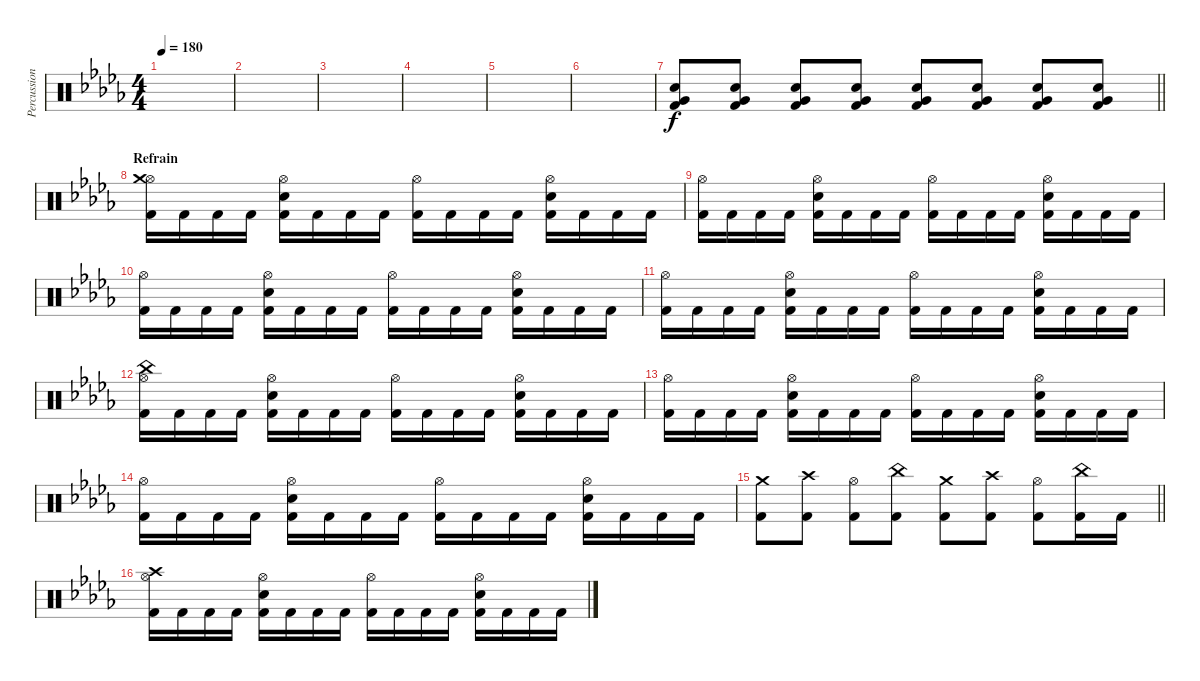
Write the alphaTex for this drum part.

\track ("Percussions" "Percussion") {instrument percussion}
\staff {score}
\articulation defaults
\ts (4 4)
\tempo 180
\clef neutral
\ks bbminor
|
|
|
|
|
|
\barLineRight lightlight
("Electric Snare (hit)" "Very Low Tom (hit)" "Kick (hit) 2").8{volume 13} ("Electric Snare (hit)" "Very Low Tom (hit)" "Kick (hit) 2").8 ("Electric Snare (hit)" "Very Low Tom (hit)" "Kick (hit) 2").8 ("Electric Snare (hit)" "Very Low Tom (hit)" "Kick (hit) 2").8 ("Electric Snare (hit)" "Very Low Tom (hit)" "Kick (hit) 2").8 ("Electric Snare (hit)" "Very Low Tom (hit)" "Kick (hit) 2").8 ("Electric Snare (hit)" "Very Low Tom (hit)" "Kick (hit) 2").8 ("Electric Snare (hit)" "Very Low Tom (hit)" "Kick (hit) 2").8 |
\section ("" "Refrain")
("Hi-Hat (open)" "Crash medium (hit)" "Kick (hit) 2").16 "Kick (hit) 2".16 "Kick (hit) 2".16 "Kick (hit) 2".16 ("Hi-Hat (open)" "Electric Snare (hit)" "Kick (hit) 2").16 "Kick (hit) 2".16 "Kick (hit) 2".16 "Kick (hit) 2".16 ("Hi-Hat (open)" "Kick (hit) 2").16 "Kick (hit) 2".16 "Kick (hit) 2".16 "Kick (hit) 2".16 ("Hi-Hat (open)" "Electric Snare (hit)" "Kick (hit) 2").16 "Kick (hit) 2".16 "Kick (hit) 2".16 "Kick (hit) 2".16 |
("Hi-Hat (open)" "Kick (hit) 2").16 "Kick (hit) 2".16 "Kick (hit) 2".16 "Kick (hit) 2".16 ("Hi-Hat (open)" "Electric Snare (hit)" "Kick (hit) 2").16 "Kick (hit) 2".16 "Kick (hit) 2".16 "Kick (hit) 2".16 ("Hi-Hat (open)" "Kick (hit) 2").16 "Kick (hit) 2".16 "Kick (hit) 2".16 "Kick (hit) 2".16 ("Hi-Hat (open)" "Electric Snare (hit)" "Kick (hit) 2").16 "Kick (hit) 2".16 "Kick (hit) 2".16 "Kick (hit) 2".16 |
("Hi-Hat (open)" "Kick (hit) 2").16 "Kick (hit) 2".16 "Kick (hit) 2".16 "Kick (hit) 2".16 ("Hi-Hat (open)" "Electric Snare (hit)" "Kick (hit) 2").16 "Kick (hit) 2".16 "Kick (hit) 2".16 "Kick (hit) 2".16 ("Hi-Hat (open)" "Kick (hit) 2").16 "Kick (hit) 2".16 "Kick (hit) 2".16 "Kick (hit) 2".16 ("Hi-Hat (open)" "Electric Snare (hit)" "Kick (hit) 2").16 "Kick (hit) 2".16 "Kick (hit) 2".16 "Kick (hit) 2".16 |
("Hi-Hat (open)" "Kick (hit) 2").16 "Kick (hit) 2".16 "Kick (hit) 2".16 "Kick (hit) 2".16 ("Hi-Hat (open)" "Electric Snare (hit)" "Kick (hit) 2").16 "Kick (hit) 2".16 "Kick (hit) 2".16 "Kick (hit) 2".16 ("Hi-Hat (open)" "Kick (hit) 2").16 "Kick (hit) 2".16 "Kick (hit) 2".16 "Kick (hit) 2".16 ("Hi-Hat (open)" "Electric Snare (hit)" "Kick (hit) 2").16 "Kick (hit) 2".16 "Kick (hit) 2".16 "Kick (hit) 2".16 |
("Hi-Hat (open)" "China (hit)" "Kick (hit) 2").16 "Kick (hit) 2".16 "Kick (hit) 2".16 "Kick (hit) 2".16 ("Hi-Hat (open)" "Electric Snare (hit)" "Kick (hit) 2").16 "Kick (hit) 2".16 "Kick (hit) 2".16 "Kick (hit) 2".16 ("Hi-Hat (open)" "Kick (hit) 2").16 "Kick (hit) 2".16 "Kick (hit) 2".16 "Kick (hit) 2".16 ("Hi-Hat (open)" "Electric Snare (hit)" "Kick (hit) 2").16 "Kick (hit) 2".16 "Kick (hit) 2".16 "Kick (hit) 2".16 |
("Hi-Hat (open)" "Kick (hit) 2").16 "Kick (hit) 2".16 "Kick (hit) 2".16 "Kick (hit) 2".16 ("Hi-Hat (open)" "Electric Snare (hit)" "Kick (hit) 2").16 "Kick (hit) 2".16 "Kick (hit) 2".16 "Kick (hit) 2".16 ("Hi-Hat (open)" "Kick (hit) 2").16 "Kick (hit) 2".16 "Kick (hit) 2".16 "Kick (hit) 2".16 ("Hi-Hat (open)" "Electric Snare (hit)" "Kick (hit) 2").16 "Kick (hit) 2".16 "Kick (hit) 2".16 "Kick (hit) 2".16 |
("Hi-Hat (open)" "Kick (hit) 2").16 "Kick (hit) 2".16 "Kick (hit) 2".16 "Kick (hit) 2".16 ("Hi-Hat (open)" "Electric Snare (hit)" "Kick (hit) 2").16 "Kick (hit) 2".16 "Kick (hit) 2".16 "Kick (hit) 2".16 ("Hi-Hat (open)" "Kick (hit) 2").16 "Kick (hit) 2".16 "Kick (hit) 2".16 "Kick (hit) 2".16 ("Hi-Hat (open)" "Electric Snare (hit)" "Kick (hit) 2").16 "Kick (hit) 2".16 "Kick (hit) 2".16 "Kick (hit) 2".16 |
\barLineRight lightlight
("Crash medium (hit)" "Kick (hit) 2").8 ("Crash high (hit)" "Kick (hit) 2").8 ("Hi-Hat (open)" "Kick (hit) 2").8 ("China (hit)" "Kick (hit) 2").8 ("Crash medium (hit)" "Kick (hit) 2").8 ("Crash high (hit)" "Kick (hit) 2").8 ("Hi-Hat (open)" "Kick (hit) 2").8 ("China (hit)" "Kick (hit) 2").16 "Kick (hit) 2".16 |
("Hi-Hat (open)" "Crash high (hit)" "Kick (hit) 2").16 "Kick (hit) 2".16 "Kick (hit) 2".16 "Kick (hit) 2".16 ("Hi-Hat (open)" "Electric Snare (hit)" "Kick (hit) 2").16 "Kick (hit) 2".16 "Kick (hit) 2".16 "Kick (hit) 2".16 ("Hi-Hat (open)" "Kick (hit) 2").16 "Kick (hit) 2".16 "Kick (hit) 2".16 "Kick (hit) 2".16 ("Hi-Hat (open)" "Electric Snare (hit)" "Kick (hit) 2").16 "Kick (hit) 2".16 "Kick (hit) 2".16 "Kick (hit) 2".16
